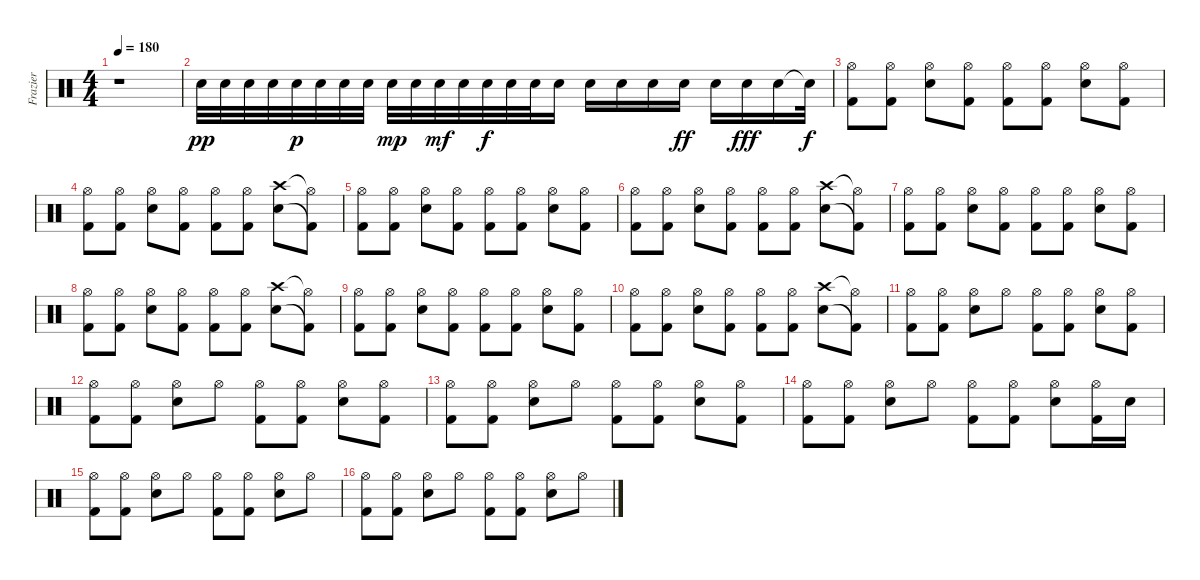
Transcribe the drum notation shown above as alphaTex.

\track ("Frazier" "Frazier") {instrument percussion}
\staff {score}
\articulation defaults
\ts (4 4)
\tempo 180
\clef neutral
\ks c
r.1{dy pp} |
"Electric Snare (hit)".32 "Electric Snare (hit)".32 "Electric Snare (hit)".32 "Electric Snare (hit)".32 "Electric Snare (hit)".32{dy p} "Electric Snare (hit)".32 "Electric Snare (hit)".32 "Electric Snare (hit)".32 "Electric Snare (hit)".32{dy mp} "Electric Snare (hit)".32 "Electric Snare (hit)".32{dy mf} "Electric Snare (hit)".32 "Electric Snare (hit)".32{dy f} "Electric Snare (hit)".32 "Electric Snare (hit)".32 "Electric Snare (hit)".16 "Electric Snare (hit)".16 "Electric Snare (hit)".16 "Electric Snare (hit)".16 "Electric Snare (hit)".16{dy ff} "Electric Snare (hit)".16 "Electric Snare (hit)".16{dy fff} "Electric Snare (hit)".16 "Electric Snare (hit)"{t}.32{dy f} |
("Hi-Hat (open)" "Kick (hit) 2").8 ("Hi-Hat (open)" "Kick (hit) 2").8 ("Hi-Hat (open)" "Electric Snare (hit)").8 ("Hi-Hat (open)" "Kick (hit) 2").8 ("Hi-Hat (open)" "Kick (hit) 2").8 ("Hi-Hat (open)" "Kick (hit) 2").8 ("Hi-Hat (open)" "Electric Snare (hit)").8 ("Hi-Hat (open)" "Kick (hit) 2").8 |
("Hi-Hat (open)" "Kick (hit) 2").8 ("Hi-Hat (open)" "Kick (hit) 2").8 ("Hi-Hat (open)" "Electric Snare (hit)").8 ("Hi-Hat (open)" "Kick (hit) 2").8 ("Hi-Hat (open)" "Kick (hit) 2").8 ("Hi-Hat (open)" "Kick (hit) 2").8 ("Crash high (hit)" "Electric Snare (hit)").8 ("Hi-Hat (open)"{t} "Kick (hit) 2"{t}).8 |
("Hi-Hat (open)" "Kick (hit) 2").8 ("Hi-Hat (open)" "Kick (hit) 2").8 ("Hi-Hat (open)" "Electric Snare (hit)").8 ("Hi-Hat (open)" "Kick (hit) 2").8 ("Hi-Hat (open)" "Kick (hit) 2").8 ("Hi-Hat (open)" "Kick (hit) 2").8 ("Hi-Hat (open)" "Electric Snare (hit)").8 ("Hi-Hat (open)" "Kick (hit) 2").8 |
("Hi-Hat (open)" "Kick (hit) 2").8 ("Hi-Hat (open)" "Kick (hit) 2").8 ("Hi-Hat (open)" "Electric Snare (hit)").8 ("Hi-Hat (open)" "Kick (hit) 2").8 ("Hi-Hat (open)" "Kick (hit) 2").8 ("Hi-Hat (open)" "Kick (hit) 2").8 ("Crash high (hit)" "Electric Snare (hit)").8 ("Hi-Hat (open)"{t} "Kick (hit) 2"{t}).8 |
("Hi-Hat (open)" "Kick (hit) 2").8 ("Hi-Hat (open)" "Kick (hit) 2").8 ("Hi-Hat (open)" "Electric Snare (hit)").8 ("Hi-Hat (open)" "Kick (hit) 2").8 ("Hi-Hat (open)" "Kick (hit) 2").8 ("Hi-Hat (open)" "Kick (hit) 2").8 ("Hi-Hat (open)" "Electric Snare (hit)").8 ("Hi-Hat (open)" "Kick (hit) 2").8 |
("Hi-Hat (open)" "Kick (hit) 2").8 ("Hi-Hat (open)" "Kick (hit) 2").8 ("Hi-Hat (open)" "Electric Snare (hit)").8 ("Hi-Hat (open)" "Kick (hit) 2").8 ("Hi-Hat (open)" "Kick (hit) 2").8 ("Hi-Hat (open)" "Kick (hit) 2").8 ("Crash high (hit)" "Electric Snare (hit)").8 ("Hi-Hat (open)"{t} "Kick (hit) 2"{t}).8 |
("Hi-Hat (open)" "Kick (hit) 2").8 ("Hi-Hat (open)" "Kick (hit) 2").8 ("Hi-Hat (open)" "Electric Snare (hit)").8 ("Hi-Hat (open)" "Kick (hit) 2").8 ("Hi-Hat (open)" "Kick (hit) 2").8 ("Hi-Hat (open)" "Kick (hit) 2").8 ("Hi-Hat (open)" "Electric Snare (hit)").8 ("Hi-Hat (open)" "Kick (hit) 2").8 |
("Hi-Hat (open)" "Kick (hit) 2").8 ("Hi-Hat (open)" "Kick (hit) 2").8 ("Hi-Hat (open)" "Electric Snare (hit)").8 ("Hi-Hat (open)" "Kick (hit) 2").8 ("Hi-Hat (open)" "Kick (hit) 2").8 ("Hi-Hat (open)" "Kick (hit) 2").8 ("Crash high (hit)" "Electric Snare (hit)").8 ("Hi-Hat (open)"{t} "Kick (hit) 2"{t}).8 |
("Hi-Hat (open)" "Kick (hit) 2").8 ("Hi-Hat (open)" "Kick (hit) 2").8 ("Hi-Hat (open)" "Electric Snare (hit)").8 "Hi-Hat (open)".8 ("Hi-Hat (open)" "Kick (hit) 2").8 ("Hi-Hat (open)" "Kick (hit) 2").8 ("Hi-Hat (open)" "Electric Snare (hit)").8 ("Hi-Hat (open)" "Kick (hit) 2").8 |
("Hi-Hat (open)" "Kick (hit) 2").8 ("Hi-Hat (open)" "Kick (hit) 2").8 ("Hi-Hat (open)" "Electric Snare (hit)").8 "Hi-Hat (open)".8 ("Hi-Hat (open)" "Kick (hit) 2").8 ("Hi-Hat (open)" "Kick (hit) 2").8 ("Hi-Hat (open)" "Electric Snare (hit)").8 ("Hi-Hat (open)" "Kick (hit) 2").8 |
("Hi-Hat (open)" "Kick (hit) 2").8 ("Hi-Hat (open)" "Kick (hit) 2").8 ("Hi-Hat (open)" "Electric Snare (hit)").8 "Hi-Hat (open)".8 ("Hi-Hat (open)" "Kick (hit) 2").8 ("Hi-Hat (open)" "Kick (hit) 2").8 ("Hi-Hat (open)" "Electric Snare (hit)").8 ("Hi-Hat (open)" "Kick (hit) 2").8 |
("Hi-Hat (open)" "Kick (hit) 2").8 ("Hi-Hat (open)" "Kick (hit) 2").8 ("Hi-Hat (open)" "Electric Snare (hit)").8 "Hi-Hat (open)".8 ("Hi-Hat (open)" "Kick (hit) 2").8 ("Hi-Hat (open)" "Kick (hit) 2").8 ("Hi-Hat (open)" "Electric Snare (hit)").8 ("Hi-Hat (open)" "Kick (hit) 2").16 "Electric Snare (hit)".16 |
("Hi-Hat (open)" "Kick (hit) 2").8 ("Hi-Hat (open)" "Kick (hit) 2").8 ("Hi-Hat (open)" "Electric Snare (hit)").8 "Hi-Hat (open)".8 ("Hi-Hat (open)" "Kick (hit) 2").8 ("Hi-Hat (open)" "Kick (hit) 2").8 ("Hi-Hat (open)" "Electric Snare (hit)").8 "Hi-Hat (open)".8 |
("Hi-Hat (open)" "Kick (hit) 2").8 ("Hi-Hat (open)" "Kick (hit) 2").8 ("Hi-Hat (open)" "Electric Snare (hit)").8 "Hi-Hat (open)".8 ("Hi-Hat (open)" "Kick (hit) 2").8 ("Hi-Hat (open)" "Kick (hit) 2").8 ("Hi-Hat (open)" "Electric Snare (hit)").8 "Hi-Hat (open)".8
